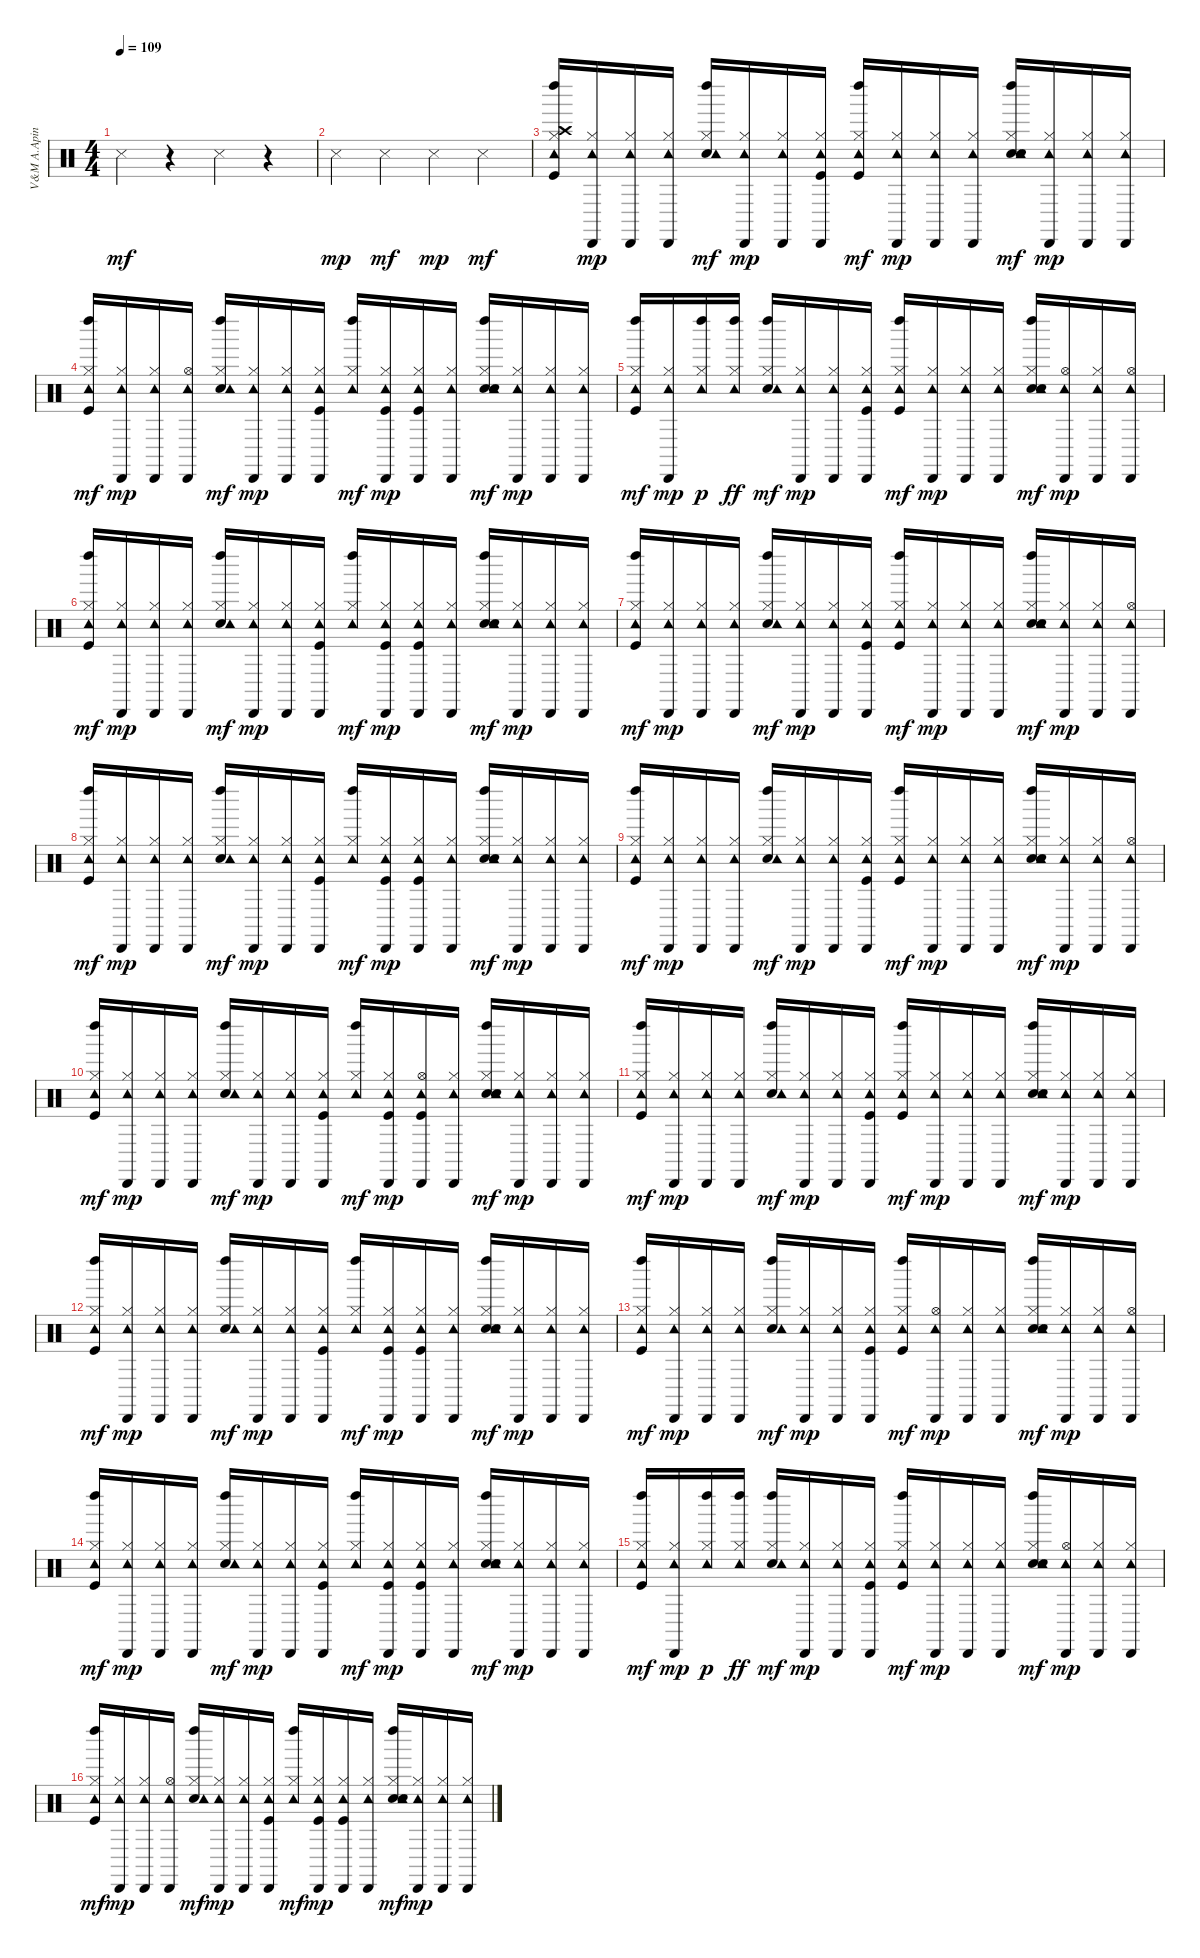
\track ("V&M A.Apin" "V&M A.Apin") {instrument percussion}
\staff {score}
\articulation defaults
\ts (4 4)
\tempo 109
\clef neutral
\ks c "Snare (side stick) 3".4{dy mf}
r.4 "Snare (side stick) 3".4 r.4 |
"Snare (side stick) 3".4{dy mp} "Snare (side stick) 3".4{dy mf} "Snare (side stick) 3".4{dy mp} "Snare (side stick) 3".4{dy mf} |
("Kick (hit)" "Hi-Hat (closed)" "Crash high (hit)" "Tambourine (hit)" "Left Maraca (hit)").16 ("Hi-Hat (closed)" "Tambourine (hit)" "Cabasa (hit)").16{dy mp} ("Hi-Hat (closed)" "Tambourine (hit)" "Cabasa (hit)").16 ("Hi-Hat (closed)" "Tambourine (hit)" "Cabasa (hit)").16 ("Snare (hit) 2" "Hi-Hat (closed)" "Tambourine (hit)" "Left Maraca (hit)").16{dy mf} ("Hi-Hat (closed)" "Tambourine (hit)" "Cabasa (hit)").16{dy mp} ("Hi-Hat (closed)" "Tambourine (hit)" "Cabasa (hit)").16 ("Kick (hit)" "Hi-Hat (closed)" "Tambourine (hit)" "Cabasa (hit)").16 ("Kick (hit)" "Hi-Hat (closed)" "Tambourine (hit)" "Left Maraca (hit)").16{dy mf} ("Hi-Hat (closed)" "Tambourine (hit)" "Cabasa (hit)").16{dy mp} ("Hi-Hat (closed)" "Tambourine (hit)" "Cabasa (hit)").16 ("Hi-Hat (closed)" "Tambourine (hit)" "Cabasa (hit)").16 ("Snare (hit) 2" "Hi-Hat (closed)" "Tambourine (hit)" "Hand Clap (hit)" "Left Maraca (hit)").16{dy mf} ("Hi-Hat (closed)" "Tambourine (hit)" "Cabasa (hit)").16{dy mp} ("Hi-Hat (closed)" "Tambourine (hit)" "Cabasa (hit)").16 ("Hi-Hat (closed)" "Tambourine (hit)" "Cabasa (hit)").16 |
("Kick (hit)" "Hi-Hat (closed)" "Tambourine (hit)" "Left Maraca (hit)").16{dy mf} ("Hi-Hat (closed)" "Tambourine (hit)" "Cabasa (hit)").16{dy mp} ("Hi-Hat (closed)" "Tambourine (hit)" "Cabasa (hit)").16 ("Hi-Hat (open)" "Tambourine (hit)" "Cabasa (hit)").16 ("Snare (hit) 2" "Hi-Hat (closed)" "Tambourine (hit)" "Left Maraca (hit)").16{dy mf} ("Hi-Hat (closed)" "Tambourine (hit)" "Cabasa (hit)").16{dy mp} ("Hi-Hat (closed)" "Tambourine (hit)" "Cabasa (hit)").16 ("Kick (hit)" "Hi-Hat (closed)" "Tambourine (hit)" "Cabasa (hit)").16 ("Hi-Hat (closed)" "Tambourine (hit)" "Left Maraca (hit)").16{dy mf} ("Kick (hit)" "Hi-Hat (closed)" "Tambourine (hit)" "Cabasa (hit)").16{dy mp} ("Kick (hit)" "Hi-Hat (closed)" "Tambourine (hit)" "Cabasa (hit)").16 ("Hi-Hat (closed)" "Tambourine (hit)" "Cabasa (hit)").16 ("Snare (hit) 2" "Hi-Hat (closed)" "Tambourine (hit)" "Hand Clap (hit)" "Left Maraca (hit)").16{dy mf} ("Hi-Hat (closed)" "Tambourine (hit)" "Cabasa (hit)").16{dy mp} ("Hi-Hat (closed)" "Tambourine (hit)" "Cabasa (hit)").16 ("Hi-Hat (closed)" "Tambourine (hit)" "Cabasa (hit)").16 |
("Kick (hit)" "Hi-Hat (closed)" "Tambourine (hit)" "Left Maraca (hit)").16{dy mf} ("Hi-Hat (closed)" "Tambourine (hit)" "Cabasa (hit)").16{dy mp} ("Hi-Hat (closed)" "Tambourine (hit)" "Left Maraca (hit)").16{dy p} ("Hi-Hat (closed)" "Tambourine (hit)" "Left Maraca (hit)").16{dy ff} ("Snare (hit) 2" "Hi-Hat (closed)" "Tambourine (hit)" "Left Maraca (hit)").16{dy mf} ("Hi-Hat (closed)" "Tambourine (hit)" "Cabasa (hit)").16{dy mp} ("Hi-Hat (closed)" "Tambourine (hit)" "Cabasa (hit)").16 ("Kick (hit)" "Hi-Hat (closed)" "Tambourine (hit)" "Cabasa (hit)").16 ("Kick (hit)" "Hi-Hat (closed)" "Tambourine (hit)" "Left Maraca (hit)").16{dy mf} ("Hi-Hat (closed)" "Tambourine (hit)" "Cabasa (hit)").16{dy mp} ("Hi-Hat (closed)" "Tambourine (hit)" "Cabasa (hit)").16 ("Hi-Hat (closed)" "Tambourine (hit)" "Cabasa (hit)").16 ("Snare (hit) 2" "Hi-Hat (closed)" "Tambourine (hit)" "Hand Clap (hit)" "Left Maraca (hit)").16{dy mf} ("Hi-Hat (open)" "Tambourine (hit)" "Cabasa (hit)").16{dy mp} ("Hi-Hat (closed)" "Tambourine (hit)" "Cabasa (hit)").16 ("Hi-Hat (open)" "Tambourine (hit)" "Cabasa (hit)").16 |
("Kick (hit)" "Hi-Hat (closed)" "Tambourine (hit)" "Left Maraca (hit)").16{dy mf} ("Hi-Hat (closed)" "Tambourine (hit)" "Cabasa (hit)").16{dy mp} ("Hi-Hat (closed)" "Tambourine (hit)" "Cabasa (hit)").16 ("Hi-Hat (closed)" "Tambourine (hit)" "Cabasa (hit)").16 ("Snare (hit) 2" "Hi-Hat (closed)" "Tambourine (hit)" "Left Maraca (hit)").16{dy mf} ("Hi-Hat (closed)" "Tambourine (hit)" "Cabasa (hit)").16{dy mp} ("Hi-Hat (closed)" "Tambourine (hit)" "Cabasa (hit)").16 ("Kick (hit)" "Hi-Hat (closed)" "Tambourine (hit)" "Cabasa (hit)").16 ("Hi-Hat (closed)" "Tambourine (hit)" "Left Maraca (hit)").16{dy mf} ("Kick (hit)" "Hi-Hat (closed)" "Tambourine (hit)" "Cabasa (hit)").16{dy mp} ("Kick (hit)" "Hi-Hat (closed)" "Tambourine (hit)" "Cabasa (hit)").16 ("Hi-Hat (closed)" "Tambourine (hit)" "Cabasa (hit)").16 ("Snare (hit) 2" "Hi-Hat (closed)" "Tambourine (hit)" "Hand Clap (hit)" "Left Maraca (hit)").16{dy mf} ("Hi-Hat (closed)" "Tambourine (hit)" "Cabasa (hit)").16{dy mp} ("Hi-Hat (closed)" "Tambourine (hit)" "Cabasa (hit)").16 ("Hi-Hat (closed)" "Tambourine (hit)" "Cabasa (hit)").16 |
("Kick (hit)" "Hi-Hat (closed)" "Tambourine (hit)" "Left Maraca (hit)").16{dy mf} ("Hi-Hat (closed)" "Tambourine (hit)" "Cabasa (hit)").16{dy mp} ("Hi-Hat (closed)" "Tambourine (hit)" "Cabasa (hit)").16 ("Hi-Hat (closed)" "Tambourine (hit)" "Cabasa (hit)").16 ("Snare (hit) 2" "Hi-Hat (closed)" "Tambourine (hit)" "Left Maraca (hit)").16{dy mf} ("Hi-Hat (closed)" "Tambourine (hit)" "Cabasa (hit)").16{dy mp} ("Hi-Hat (closed)" "Tambourine (hit)" "Cabasa (hit)").16 ("Kick (hit)" "Hi-Hat (closed)" "Tambourine (hit)" "Cabasa (hit)").16 ("Kick (hit)" "Hi-Hat (closed)" "Tambourine (hit)" "Left Maraca (hit)").16{dy mf} ("Hi-Hat (closed)" "Tambourine (hit)" "Cabasa (hit)").16{dy mp} ("Hi-Hat (closed)" "Tambourine (hit)" "Cabasa (hit)").16 ("Hi-Hat (closed)" "Tambourine (hit)" "Cabasa (hit)").16 ("Snare (hit) 2" "Hi-Hat (closed)" "Tambourine (hit)" "Hand Clap (hit)" "Left Maraca (hit)").16{dy mf} ("Hi-Hat (closed)" "Tambourine (hit)" "Cabasa (hit)").16{dy mp} ("Hi-Hat (closed)" "Tambourine (hit)" "Cabasa (hit)").16 ("Hi-Hat (open)" "Tambourine (hit)" "Cabasa (hit)").16 |
("Kick (hit)" "Hi-Hat (closed)" "Tambourine (hit)" "Left Maraca (hit)").16{dy mf} ("Hi-Hat (closed)" "Tambourine (hit)" "Cabasa (hit)").16{dy mp} ("Hi-Hat (closed)" "Tambourine (hit)" "Cabasa (hit)").16 ("Hi-Hat (closed)" "Tambourine (hit)" "Cabasa (hit)").16 ("Snare (hit) 2" "Hi-Hat (closed)" "Tambourine (hit)" "Left Maraca (hit)").16{dy mf} ("Hi-Hat (closed)" "Tambourine (hit)" "Cabasa (hit)").16{dy mp} ("Hi-Hat (closed)" "Tambourine (hit)" "Cabasa (hit)").16 ("Kick (hit)" "Hi-Hat (closed)" "Tambourine (hit)" "Cabasa (hit)").16 ("Hi-Hat (closed)" "Tambourine (hit)" "Left Maraca (hit)").16{dy mf} ("Kick (hit)" "Hi-Hat (closed)" "Tambourine (hit)" "Cabasa (hit)").16{dy mp} ("Kick (hit)" "Hi-Hat (closed)" "Tambourine (hit)" "Cabasa (hit)").16 ("Hi-Hat (closed)" "Tambourine (hit)" "Cabasa (hit)").16 ("Snare (hit) 2" "Hi-Hat (closed)" "Tambourine (hit)" "Hand Clap (hit)" "Left Maraca (hit)").16{dy mf} ("Hi-Hat (closed)" "Tambourine (hit)" "Cabasa (hit)").16{dy mp} ("Hi-Hat (closed)" "Tambourine (hit)" "Cabasa (hit)").16 ("Hi-Hat (closed)" "Tambourine (hit)" "Cabasa (hit)").16 |
("Kick (hit)" "Hi-Hat (closed)" "Tambourine (hit)" "Left Maraca (hit)").16{dy mf} ("Hi-Hat (closed)" "Tambourine (hit)" "Cabasa (hit)").16{dy mp} ("Hi-Hat (closed)" "Tambourine (hit)" "Cabasa (hit)").16 ("Hi-Hat (closed)" "Tambourine (hit)" "Cabasa (hit)").16 ("Snare (hit) 2" "Hi-Hat (closed)" "Tambourine (hit)" "Left Maraca (hit)").16{dy mf} ("Hi-Hat (closed)" "Tambourine (hit)" "Cabasa (hit)").16{dy mp} ("Hi-Hat (closed)" "Tambourine (hit)" "Cabasa (hit)").16 ("Kick (hit)" "Hi-Hat (closed)" "Tambourine (hit)" "Cabasa (hit)").16 ("Kick (hit)" "Hi-Hat (closed)" "Tambourine (hit)" "Left Maraca (hit)").16{dy mf} ("Hi-Hat (closed)" "Tambourine (hit)" "Cabasa (hit)").16{dy mp} ("Hi-Hat (closed)" "Tambourine (hit)" "Cabasa (hit)").16 ("Hi-Hat (closed)" "Tambourine (hit)" "Cabasa (hit)").16 ("Snare (hit) 2" "Hi-Hat (closed)" "Tambourine (hit)" "Hand Clap (hit)" "Left Maraca (hit)").16{dy mf} ("Hi-Hat (closed)" "Tambourine (hit)" "Cabasa (hit)").16{dy mp} ("Hi-Hat (closed)" "Tambourine (hit)" "Cabasa (hit)").16 ("Hi-Hat (open)" "Tambourine (hit)" "Cabasa (hit)").16 |
("Kick (hit)" "Hi-Hat (closed)" "Tambourine (hit)" "Left Maraca (hit)").16{dy mf} ("Hi-Hat (closed)" "Tambourine (hit)" "Cabasa (hit)").16{dy mp} ("Hi-Hat (closed)" "Tambourine (hit)" "Cabasa (hit)").16 ("Hi-Hat (closed)" "Tambourine (hit)" "Cabasa (hit)").16 ("Snare (hit) 2" "Hi-Hat (closed)" "Tambourine (hit)" "Left Maraca (hit)").16{dy mf} ("Hi-Hat (closed)" "Tambourine (hit)" "Cabasa (hit)").16{dy mp} ("Hi-Hat (closed)" "Tambourine (hit)" "Cabasa (hit)").16 ("Kick (hit)" "Hi-Hat (closed)" "Tambourine (hit)" "Cabasa (hit)").16 ("Hi-Hat (closed)" "Tambourine (hit)" "Left Maraca (hit)").16{dy mf} ("Kick (hit)" "Hi-Hat (closed)" "Tambourine (hit)" "Cabasa (hit)").16{dy mp} ("Kick (hit)" "Hi-Hat (open)" "Tambourine (hit)" "Cabasa (hit)").16 ("Hi-Hat (closed)" "Tambourine (hit)" "Cabasa (hit)").16 ("Snare (hit) 2" "Hi-Hat (closed)" "Tambourine (hit)" "Hand Clap (hit)" "Left Maraca (hit)").16{dy mf} ("Hi-Hat (closed)" "Tambourine (hit)" "Cabasa (hit)").16{dy mp} ("Hi-Hat (closed)" "Tambourine (hit)" "Cabasa (hit)").16 ("Hi-Hat (closed)" "Tambourine (hit)" "Cabasa (hit)").16 |
("Kick (hit)" "Hi-Hat (closed)" "Tambourine (hit)" "Left Maraca (hit)").16{dy mf} ("Hi-Hat (closed)" "Tambourine (hit)" "Cabasa (hit)").16{dy mp} ("Hi-Hat (closed)" "Tambourine (hit)" "Cabasa (hit)").16 ("Hi-Hat (closed)" "Tambourine (hit)" "Cabasa (hit)").16 ("Snare (hit) 2" "Hi-Hat (closed)" "Tambourine (hit)" "Left Maraca (hit)").16{dy mf} ("Hi-Hat (closed)" "Tambourine (hit)" "Cabasa (hit)").16{dy mp} ("Hi-Hat (closed)" "Tambourine (hit)" "Cabasa (hit)").16 ("Kick (hit)" "Hi-Hat (closed)" "Tambourine (hit)" "Cabasa (hit)").16 ("Kick (hit)" "Hi-Hat (closed)" "Tambourine (hit)" "Left Maraca (hit)").16{dy mf} ("Hi-Hat (closed)" "Tambourine (hit)" "Cabasa (hit)").16{dy mp} ("Hi-Hat (closed)" "Tambourine (hit)" "Cabasa (hit)").16 ("Hi-Hat (closed)" "Tambourine (hit)" "Cabasa (hit)").16 ("Snare (hit) 2" "Hi-Hat (closed)" "Tambourine (hit)" "Hand Clap (hit)" "Left Maraca (hit)").16{dy mf} ("Hi-Hat (closed)" "Tambourine (hit)" "Cabasa (hit)").16{dy mp} ("Hi-Hat (closed)" "Tambourine (hit)" "Cabasa (hit)").16 ("Hi-Hat (closed)" "Tambourine (hit)" "Cabasa (hit)").16 |
("Kick (hit)" "Hi-Hat (closed)" "Tambourine (hit)" "Left Maraca (hit)").16{dy mf} ("Hi-Hat (closed)" "Tambourine (hit)" "Cabasa (hit)").16{dy mp} ("Hi-Hat (closed)" "Tambourine (hit)" "Cabasa (hit)").16 ("Hi-Hat (closed)" "Tambourine (hit)" "Cabasa (hit)").16 ("Snare (hit) 2" "Hi-Hat (closed)" "Tambourine (hit)" "Left Maraca (hit)").16{dy mf} ("Hi-Hat (closed)" "Tambourine (hit)" "Cabasa (hit)").16{dy mp} ("Hi-Hat (closed)" "Tambourine (hit)" "Cabasa (hit)").16 ("Kick (hit)" "Hi-Hat (closed)" "Tambourine (hit)" "Cabasa (hit)").16 ("Hi-Hat (closed)" "Tambourine (hit)" "Left Maraca (hit)").16{dy mf} ("Kick (hit)" "Hi-Hat (closed)" "Tambourine (hit)" "Cabasa (hit)").16{dy mp} ("Kick (hit)" "Hi-Hat (closed)" "Tambourine (hit)" "Cabasa (hit)").16 ("Hi-Hat (closed)" "Tambourine (hit)" "Cabasa (hit)").16 ("Snare (hit) 2" "Hi-Hat (closed)" "Tambourine (hit)" "Hand Clap (hit)" "Left Maraca (hit)").16{dy mf} ("Hi-Hat (closed)" "Tambourine (hit)" "Cabasa (hit)").16{dy mp} ("Hi-Hat (closed)" "Tambourine (hit)" "Cabasa (hit)").16 ("Hi-Hat (closed)" "Tambourine (hit)" "Cabasa (hit)").16 |
("Kick (hit)" "Hi-Hat (closed)" "Tambourine (hit)" "Left Maraca (hit)").16{dy mf} ("Hi-Hat (closed)" "Tambourine (hit)" "Cabasa (hit)").16{dy mp} ("Hi-Hat (closed)" "Tambourine (hit)" "Cabasa (hit)").16 ("Hi-Hat (closed)" "Tambourine (hit)" "Cabasa (hit)").16 ("Snare (hit) 2" "Hi-Hat (closed)" "Tambourine (hit)" "Left Maraca (hit)").16{dy mf} ("Hi-Hat (closed)" "Tambourine (hit)" "Cabasa (hit)").16{dy mp} ("Hi-Hat (closed)" "Tambourine (hit)" "Cabasa (hit)").16 ("Kick (hit)" "Hi-Hat (closed)" "Tambourine (hit)" "Cabasa (hit)").16 ("Kick (hit)" "Hi-Hat (closed)" "Tambourine (hit)" "Left Maraca (hit)").16{dy mf} ("Hi-Hat (open)" "Tambourine (hit)" "Cabasa (hit)").16{dy mp} ("Hi-Hat (closed)" "Tambourine (hit)" "Cabasa (hit)").16 ("Hi-Hat (closed)" "Tambourine (hit)" "Cabasa (hit)").16 ("Snare (hit) 2" "Hi-Hat (closed)" "Tambourine (hit)" "Hand Clap (hit)" "Left Maraca (hit)").16{dy mf} ("Hi-Hat (closed)" "Tambourine (hit)" "Cabasa (hit)").16{dy mp} ("Hi-Hat (closed)" "Tambourine (hit)" "Cabasa (hit)").16 ("Hi-Hat (open)" "Tambourine (hit)" "Cabasa (hit)").16 |
("Kick (hit)" "Hi-Hat (closed)" "Tambourine (hit)" "Left Maraca (hit)").16{dy mf} ("Hi-Hat (closed)" "Tambourine (hit)" "Cabasa (hit)").16{dy mp} ("Hi-Hat (closed)" "Tambourine (hit)" "Cabasa (hit)").16 ("Hi-Hat (closed)" "Tambourine (hit)" "Cabasa (hit)").16 ("Snare (hit) 2" "Hi-Hat (closed)" "Tambourine (hit)" "Left Maraca (hit)").16{dy mf} ("Hi-Hat (closed)" "Tambourine (hit)" "Cabasa (hit)").16{dy mp} ("Hi-Hat (closed)" "Tambourine (hit)" "Cabasa (hit)").16 ("Kick (hit)" "Hi-Hat (closed)" "Tambourine (hit)" "Cabasa (hit)").16 ("Hi-Hat (closed)" "Tambourine (hit)" "Left Maraca (hit)").16{dy mf} ("Kick (hit)" "Hi-Hat (closed)" "Tambourine (hit)" "Cabasa (hit)").16{dy mp} ("Kick (hit)" "Hi-Hat (closed)" "Tambourine (hit)" "Cabasa (hit)").16 ("Hi-Hat (closed)" "Tambourine (hit)" "Cabasa (hit)").16 ("Snare (hit) 2" "Hi-Hat (closed)" "Tambourine (hit)" "Hand Clap (hit)" "Left Maraca (hit)").16{dy mf} ("Hi-Hat (closed)" "Tambourine (hit)" "Cabasa (hit)").16{dy mp} ("Hi-Hat (closed)" "Tambourine (hit)" "Cabasa (hit)").16 ("Hi-Hat (closed)" "Tambourine (hit)" "Cabasa (hit)").16 |
("Kick (hit)" "Hi-Hat (closed)" "Tambourine (hit)" "Left Maraca (hit)").16{dy mf} ("Hi-Hat (closed)" "Tambourine (hit)" "Cabasa (hit)").16{dy mp} ("Hi-Hat (closed)" "Tambourine (hit)" "Left Maraca (hit)").16{dy p} ("Hi-Hat (closed)" "Tambourine (hit)" "Left Maraca (hit)").16{dy ff} ("Snare (hit) 2" "Hi-Hat (closed)" "Tambourine (hit)" "Left Maraca (hit)").16{dy mf} ("Hi-Hat (closed)" "Tambourine (hit)" "Cabasa (hit)").16{dy mp} ("Hi-Hat (closed)" "Tambourine (hit)" "Cabasa (hit)").16 ("Kick (hit)" "Hi-Hat (closed)" "Tambourine (hit)" "Cabasa (hit)").16 ("Kick (hit)" "Hi-Hat (closed)" "Tambourine (hit)" "Left Maraca (hit)").16{dy mf} ("Hi-Hat (closed)" "Tambourine (hit)" "Cabasa (hit)").16{dy mp} ("Hi-Hat (closed)" "Tambourine (hit)" "Cabasa (hit)").16 ("Hi-Hat (closed)" "Tambourine (hit)" "Cabasa (hit)").16 ("Snare (hit) 2" "Hi-Hat (closed)" "Tambourine (hit)" "Hand Clap (hit)" "Left Maraca (hit)").16{dy mf} ("Hi-Hat (open)" "Tambourine (hit)" "Cabasa (hit)").16{dy mp} ("Hi-Hat (closed)" "Tambourine (hit)" "Cabasa (hit)").16 ("Hi-Hat (closed)" "Tambourine (hit)" "Cabasa (hit)").16 |
("Kick (hit)" "Hi-Hat (closed)" "Tambourine (hit)" "Left Maraca (hit)").16{dy mf} ("Hi-Hat (closed)" "Tambourine (hit)" "Cabasa (hit)").16{dy mp} ("Hi-Hat (closed)" "Tambourine (hit)" "Cabasa (hit)").16 ("Hi-Hat (open)" "Tambourine (hit)" "Cabasa (hit)").16 ("Snare (hit) 2" "Hi-Hat (closed)" "Tambourine (hit)" "Left Maraca (hit)").16{dy mf} ("Hi-Hat (closed)" "Tambourine (hit)" "Cabasa (hit)").16{dy mp} ("Hi-Hat (closed)" "Tambourine (hit)" "Cabasa (hit)").16 ("Kick (hit)" "Hi-Hat (closed)" "Tambourine (hit)" "Cabasa (hit)").16 ("Hi-Hat (closed)" "Tambourine (hit)" "Left Maraca (hit)").16{dy mf} ("Kick (hit)" "Hi-Hat (closed)" "Tambourine (hit)" "Cabasa (hit)").16{dy mp} ("Kick (hit)" "Hi-Hat (closed)" "Tambourine (hit)" "Cabasa (hit)").16 ("Hi-Hat (closed)" "Tambourine (hit)" "Cabasa (hit)").16 ("Snare (hit) 2" "Hi-Hat (closed)" "Tambourine (hit)" "Hand Clap (hit)" "Left Maraca (hit)").16{dy mf} ("Hi-Hat (closed)" "Tambourine (hit)" "Cabasa (hit)").16{dy mp} ("Hi-Hat (closed)" "Tambourine (hit)" "Cabasa (hit)").16 ("Hi-Hat (closed)" "Tambourine (hit)" "Cabasa (hit)").16
